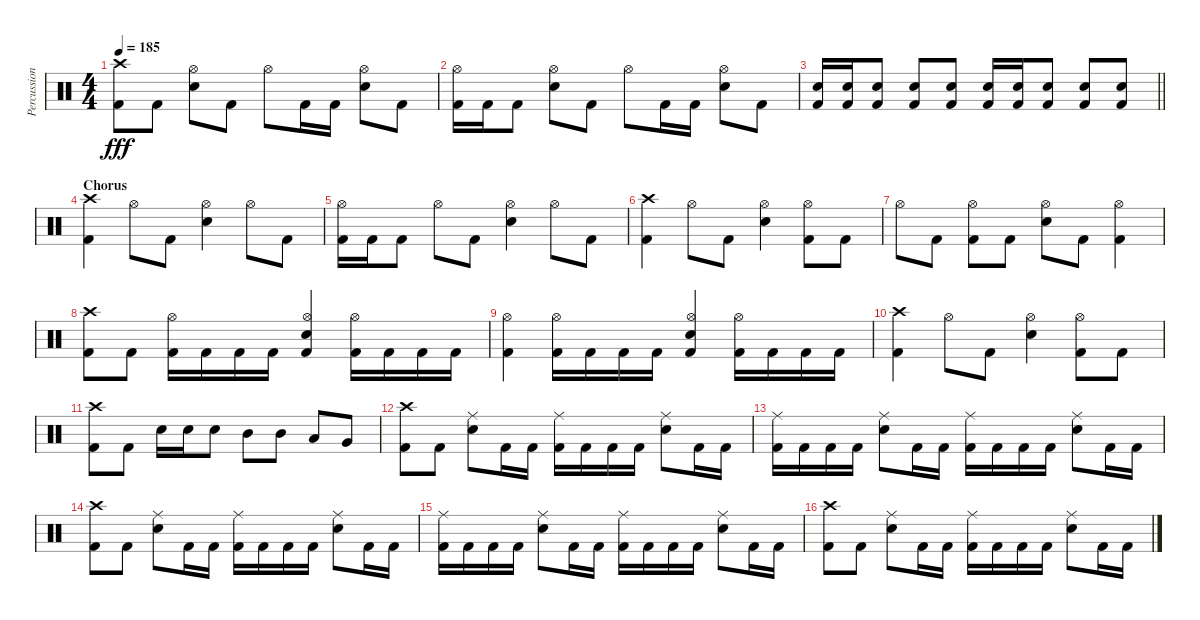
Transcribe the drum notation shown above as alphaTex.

\track ("Percussion" "Percussion") {instrument percussion}
\staff {score}
\articulation defaults
\ts (4 4)
\tempo 185
\clef neutral
\ks c
("Crash high (hit)" "Kick (hit) 2").8{dy fff} "Kick (hit) 2".8 ("Hi-Hat (open)" "Electric Snare (hit)").8 "Kick (hit) 2".8 "Hi-Hat (open)".8 "Kick (hit) 2".16 "Kick (hit) 2".16 ("Hi-Hat (open)" "Electric Snare (hit)").8 "Kick (hit) 2".8 |
("Hi-Hat (open)" "Kick (hit) 2").16 "Kick (hit) 2".16 "Kick (hit) 2".8 ("Hi-Hat (open)" "Electric Snare (hit)").8 "Kick (hit) 2".8 "Hi-Hat (open)".8 "Kick (hit) 2".16 "Kick (hit) 2".16 ("Hi-Hat (open)" "Electric Snare (hit)").8 "Kick (hit) 2".8 |
\barLineRight lightlight
("Electric Snare (hit)" "Kick (hit) 2").16 ("Electric Snare (hit)" "Kick (hit) 2").16 ("Electric Snare (hit)" "Kick (hit) 2").8 ("Electric Snare (hit)" "Kick (hit) 2").8 ("Electric Snare (hit)" "Kick (hit) 2").8 ("Electric Snare (hit)" "Kick (hit) 2").16 ("Electric Snare (hit)" "Kick (hit) 2").16 ("Electric Snare (hit)" "Kick (hit) 2").8 ("Electric Snare (hit)" "Kick (hit) 2").8 ("Electric Snare (hit)" "Kick (hit) 2").8 |
\section ("" "Chorus")
("Crash high (hit)" "Kick (hit) 2").4 "Hi-Hat (open)".8 "Kick (hit) 2".8 ("Hi-Hat (open)" "Electric Snare (hit)").4 "Hi-Hat (open)".8 "Kick (hit) 2".8 |
("Hi-Hat (open)" "Kick (hit) 2").16 "Kick (hit) 2".16 "Kick (hit) 2".8 "Hi-Hat (open)".8 "Kick (hit) 2".8 ("Hi-Hat (open)" "Electric Snare (hit)").4 "Hi-Hat (open)".8 "Kick (hit) 2".8 |
("Crash high (hit)" "Kick (hit) 2").4 "Hi-Hat (open)".8 "Kick (hit) 2".8 ("Hi-Hat (open)" "Electric Snare (hit)").4 ("Hi-Hat (open)" "Kick (hit) 2").8 "Kick (hit) 2".8 |
"Hi-Hat (open)".8 "Kick (hit) 2".8 ("Hi-Hat (open)" "Kick (hit) 2").8 "Kick (hit) 2".8 ("Hi-Hat (open)" "Electric Snare (hit)").8 "Kick (hit) 2".8 ("Hi-Hat (open)" "Kick (hit) 2").4 |
("Crash high (hit)" "Kick (hit) 2").8 "Kick (hit) 2".8 ("Hi-Hat (open)" "Kick (hit) 2").16 "Kick (hit) 2".16 "Kick (hit) 2".16 "Kick (hit) 2".16 ("Hi-Hat (open)" "Electric Snare (hit)" "Kick (hit) 2").4 ("Hi-Hat (open)" "Kick (hit) 2").16 "Kick (hit) 2".16 "Kick (hit) 2".16 "Kick (hit) 2".16 |
("Hi-Hat (open)" "Kick (hit) 2").4 ("Hi-Hat (open)" "Kick (hit) 2").16 "Kick (hit) 2".16 "Kick (hit) 2".16 "Kick (hit) 2".16 ("Hi-Hat (open)" "Electric Snare (hit)" "Kick (hit) 2").4 ("Hi-Hat (open)" "Kick (hit) 2").16 "Kick (hit) 2".16 "Kick (hit) 2".16 "Kick (hit) 2".16 |
("Crash high (hit)" "Kick (hit) 2").4 "Hi-Hat (open)".8 "Kick (hit) 2".8 ("Hi-Hat (open)" "Electric Snare (hit)").4 ("Hi-Hat (open)" "Kick (hit) 2").8 "Kick (hit) 2".8 |
("Crash high (hit)" "Kick (hit) 2").8 "Kick (hit) 2".8 "Electric Snare (hit)".16 "Electric Snare (hit)".16 "Electric Snare (hit)".8 "Mid Tom (hit)".8 "Mid Tom (hit)".8 "Low Tom (hit)".8 "Very Low Tom (hit)".8 |
("Crash high (hit)" "Kick (hit) 2").8 "Kick (hit) 2".8 ("Ride (middle)" "Electric Snare (hit)").8 "Kick (hit) 2".16 "Kick (hit) 2".16 ("Ride (middle)" "Kick (hit) 2").16 "Kick (hit) 2".16 "Kick (hit) 2".16 "Kick (hit) 2".16 ("Ride (middle)" "Electric Snare (hit)").8 "Kick (hit) 2".16 "Kick (hit) 2".16 |
("Ride (middle)" "Kick (hit) 2").16 "Kick (hit) 2".16 "Kick (hit) 2".16 "Kick (hit) 2".16 ("Ride (middle)" "Electric Snare (hit)").8 "Kick (hit) 2".16 "Kick (hit) 2".16 ("Ride (middle)" "Kick (hit) 2").16 "Kick (hit) 2".16 "Kick (hit) 2".16 "Kick (hit) 2".16 ("Ride (middle)" "Electric Snare (hit)").8 "Kick (hit) 2".16 "Kick (hit) 2".16 |
("Crash high (hit)" "Kick (hit) 2").8 "Kick (hit) 2".8 ("Ride (middle)" "Electric Snare (hit)").8 "Kick (hit) 2".16 "Kick (hit) 2".16 ("Ride (middle)" "Kick (hit) 2").16 "Kick (hit) 2".16 "Kick (hit) 2".16 "Kick (hit) 2".16 ("Ride (middle)" "Electric Snare (hit)").8 "Kick (hit) 2".16 "Kick (hit) 2".16 |
("Ride (middle)" "Kick (hit) 2").16 "Kick (hit) 2".16 "Kick (hit) 2".16 "Kick (hit) 2".16 ("Ride (middle)" "Electric Snare (hit)").8 "Kick (hit) 2".16 "Kick (hit) 2".16 ("Ride (middle)" "Kick (hit) 2").16 "Kick (hit) 2".16 "Kick (hit) 2".16 "Kick (hit) 2".16 ("Ride (middle)" "Electric Snare (hit)").8 "Kick (hit) 2".16 "Kick (hit) 2".16 |
("Crash high (hit)" "Kick (hit) 2").8 "Kick (hit) 2".8 ("Ride (middle)" "Electric Snare (hit)").8 "Kick (hit) 2".16 "Kick (hit) 2".16 ("Ride (middle)" "Kick (hit) 2").16 "Kick (hit) 2".16 "Kick (hit) 2".16 "Kick (hit) 2".16 ("Ride (middle)" "Electric Snare (hit)").8 "Kick (hit) 2".16 "Kick (hit) 2".16
